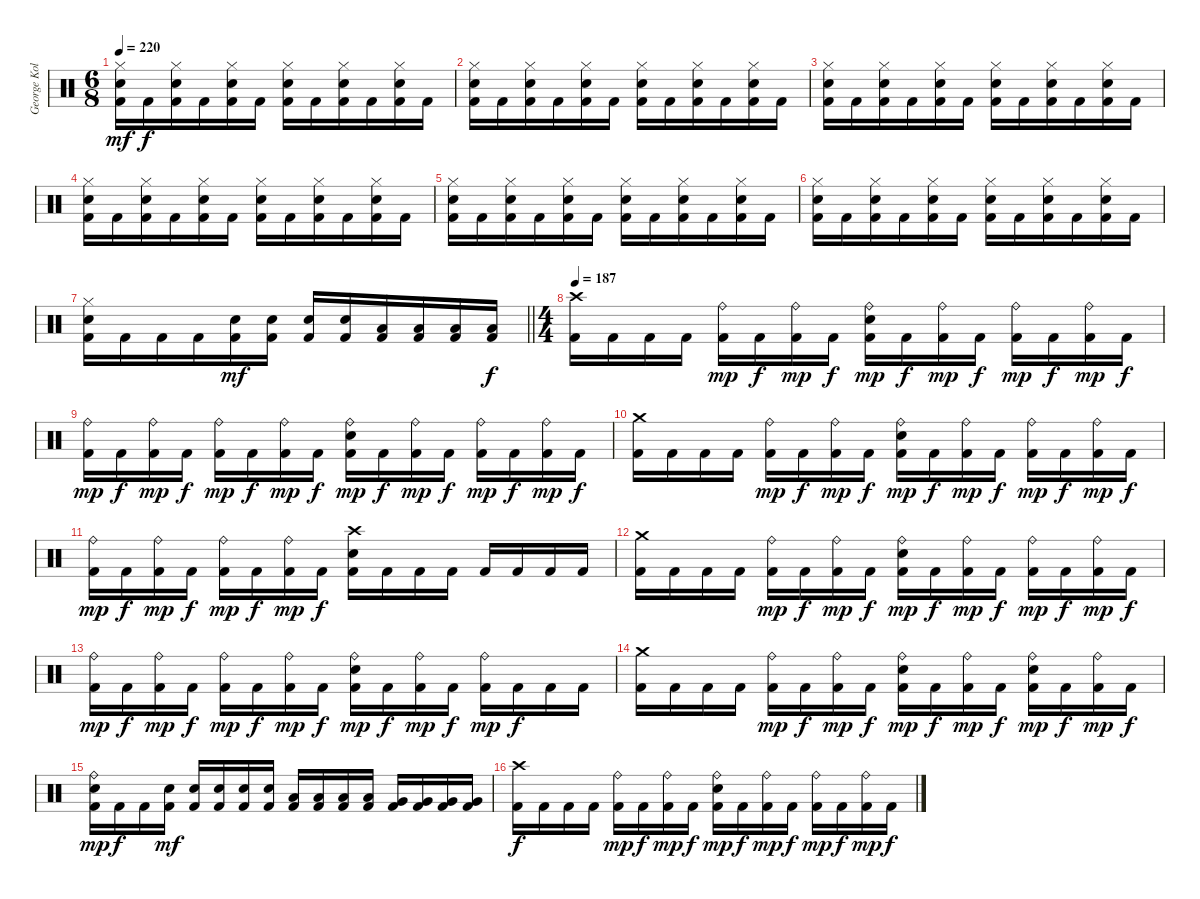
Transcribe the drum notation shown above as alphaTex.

\track ("George Kollias" "George Kol") {instrument percussion}
\staff {score}
\articulation defaults
\ts (6 8)
\tempo 220
\clef neutral
\ks c
("Hi-Hat (closed)" "Electric Snare (hit)" "Kick (hit) 2").16{dy mf} "Kick (hit) 2".16{dy f} ("Hi-Hat (closed)" "Electric Snare (hit)" "Kick (hit) 2").16 "Kick (hit) 2".16 ("Hi-Hat (closed)" "Electric Snare (hit)" "Kick (hit) 2").16 "Kick (hit) 2".16 ("Hi-Hat (closed)" "Electric Snare (hit)" "Kick (hit) 2").16 "Kick (hit) 2".16 ("Hi-Hat (closed)" "Electric Snare (hit)" "Kick (hit) 2").16 "Kick (hit) 2".16 ("Hi-Hat (closed)" "Electric Snare (hit)" "Kick (hit) 2").16 "Kick (hit) 2".16 |
("Hi-Hat (closed)" "Electric Snare (hit)" "Kick (hit) 2").16 "Kick (hit) 2".16 ("Hi-Hat (closed)" "Electric Snare (hit)" "Kick (hit) 2").16 "Kick (hit) 2".16 ("Hi-Hat (closed)" "Electric Snare (hit)" "Kick (hit) 2").16 "Kick (hit) 2".16 ("Hi-Hat (closed)" "Electric Snare (hit)" "Kick (hit) 2").16 "Kick (hit) 2".16 ("Hi-Hat (closed)" "Electric Snare (hit)" "Kick (hit) 2").16 "Kick (hit) 2".16 ("Hi-Hat (closed)" "Electric Snare (hit)" "Kick (hit) 2").16 "Kick (hit) 2".16 |
("Hi-Hat (closed)" "Electric Snare (hit)" "Kick (hit) 2").16 "Kick (hit) 2".16 ("Hi-Hat (closed)" "Electric Snare (hit)" "Kick (hit) 2").16 "Kick (hit) 2".16 ("Hi-Hat (closed)" "Electric Snare (hit)" "Kick (hit) 2").16 "Kick (hit) 2".16 ("Hi-Hat (closed)" "Electric Snare (hit)" "Kick (hit) 2").16 "Kick (hit) 2".16 ("Hi-Hat (closed)" "Electric Snare (hit)" "Kick (hit) 2").16 "Kick (hit) 2".16 ("Hi-Hat (closed)" "Electric Snare (hit)" "Kick (hit) 2").16 "Kick (hit) 2".16 |
("Hi-Hat (closed)" "Electric Snare (hit)" "Kick (hit) 2").16 "Kick (hit) 2".16 ("Hi-Hat (closed)" "Electric Snare (hit)" "Kick (hit) 2").16 "Kick (hit) 2".16 ("Hi-Hat (closed)" "Electric Snare (hit)" "Kick (hit) 2").16 "Kick (hit) 2".16 ("Hi-Hat (closed)" "Electric Snare (hit)" "Kick (hit) 2").16 "Kick (hit) 2".16 ("Hi-Hat (closed)" "Electric Snare (hit)" "Kick (hit) 2").16 "Kick (hit) 2".16 ("Hi-Hat (closed)" "Electric Snare (hit)" "Kick (hit) 2").16 "Kick (hit) 2".16 |
("Hi-Hat (closed)" "Electric Snare (hit)" "Kick (hit) 2").16 "Kick (hit) 2".16 ("Hi-Hat (closed)" "Electric Snare (hit)" "Kick (hit) 2").16 "Kick (hit) 2".16 ("Hi-Hat (closed)" "Electric Snare (hit)" "Kick (hit) 2").16 "Kick (hit) 2".16 ("Hi-Hat (closed)" "Electric Snare (hit)" "Kick (hit) 2").16 "Kick (hit) 2".16 ("Hi-Hat (closed)" "Electric Snare (hit)" "Kick (hit) 2").16 "Kick (hit) 2".16 ("Hi-Hat (closed)" "Electric Snare (hit)" "Kick (hit) 2").16 "Kick (hit) 2".16 |
("Hi-Hat (closed)" "Electric Snare (hit)" "Kick (hit) 2").16 "Kick (hit) 2".16 ("Hi-Hat (closed)" "Electric Snare (hit)" "Kick (hit) 2").16 "Kick (hit) 2".16 ("Hi-Hat (closed)" "Electric Snare (hit)" "Kick (hit) 2").16 "Kick (hit) 2".16 ("Hi-Hat (closed)" "Electric Snare (hit)" "Kick (hit) 2").16 "Kick (hit) 2".16 ("Hi-Hat (closed)" "Electric Snare (hit)" "Kick (hit) 2").16 "Kick (hit) 2".16 ("Hi-Hat (closed)" "Electric Snare (hit)" "Kick (hit) 2").16 "Kick (hit) 2".16 |
\barLineRight lightlight
("Hi-Hat (closed)" "Electric Snare (hit)" "Kick (hit) 2").16 "Kick (hit) 2".16 "Kick (hit) 2".16 "Kick (hit) 2".16 ("Electric Snare (hit)" "Kick (hit) 2").16{dy mf} ("Electric Snare (hit)" "Kick (hit) 2").16 ("Electric Snare (hit)" "Kick (hit) 2").16 ("Electric Snare (hit)" "Kick (hit) 2").16 ("Low Tom (hit)" "Kick (hit) 2").16 ("Low Tom (hit)" "Kick (hit) 2").16 ("Low Tom (hit)" "Kick (hit) 2").16 ("Low Tom (hit)" "Kick (hit) 2").16{dy f} |
\ts (4 4)
\section ("" "")
\tempo 187
("Crash high (hit)" "Kick (hit) 2").16 "Kick (hit) 2".16 "Kick (hit) 2".16 "Kick (hit) 2".16 ("Ride (bell)" "Kick (hit) 2").16{dy mp} "Kick (hit) 2".16{dy f} ("Ride (bell)" "Kick (hit) 2").16{dy mp} "Kick (hit) 2".16{dy f} ("Ride (bell)" "Electric Snare (hit)" "Kick (hit) 2").16{dy mp} "Kick (hit) 2".16{dy f} ("Ride (bell)" "Kick (hit) 2").16{dy mp} "Kick (hit) 2".16{dy f} ("Ride (bell)" "Kick (hit) 2").16{dy mp} "Kick (hit) 2".16{dy f} ("Ride (bell)" "Kick (hit) 2").16{dy mp} "Kick (hit) 2".16{dy f} |
("Ride (bell)" "Kick (hit) 2").16{dy mp} "Kick (hit) 2".16{dy f} ("Ride (bell)" "Kick (hit) 2").16{dy mp} "Kick (hit) 2".16{dy f} ("Ride (bell)" "Kick (hit) 2").16{dy mp} "Kick (hit) 2".16{dy f} ("Ride (bell)" "Kick (hit) 2").16{dy mp} "Kick (hit) 2".16{dy f} ("Ride (bell)" "Electric Snare (hit)" "Kick (hit) 2").16{dy mp} "Kick (hit) 2".16{dy f} ("Ride (bell)" "Kick (hit) 2").16{dy mp} "Kick (hit) 2".16{dy f} ("Ride (bell)" "Kick (hit) 2").16{dy mp} "Kick (hit) 2".16{dy f} ("Ride (bell)" "Kick (hit) 2").16{dy mp} "Kick (hit) 2".16{dy f} |
("Crash medium (hit)" "Kick (hit) 2").16 "Kick (hit) 2".16 "Kick (hit) 2".16 "Kick (hit) 2".16 ("Ride (bell)" "Kick (hit) 2").16{dy mp} "Kick (hit) 2".16{dy f} ("Ride (bell)" "Kick (hit) 2").16{dy mp} "Kick (hit) 2".16{dy f} ("Ride (bell)" "Electric Snare (hit)" "Kick (hit) 2").16{dy mp} "Kick (hit) 2".16{dy f} ("Ride (bell)" "Kick (hit) 2").16{dy mp} "Kick (hit) 2".16{dy f} ("Ride (bell)" "Kick (hit) 2").16{dy mp} "Kick (hit) 2".16{dy f} ("Ride (bell)" "Kick (hit) 2").16{dy mp} "Kick (hit) 2".16{dy f} |
("Ride (bell)" "Kick (hit) 2").16{dy mp} "Kick (hit) 2".16{dy f} ("Ride (bell)" "Kick (hit) 2").16{dy mp} "Kick (hit) 2".16{dy f} ("Ride (bell)" "Kick (hit) 2").16{dy mp} "Kick (hit) 2".16{dy f} ("Ride (bell)" "Kick (hit) 2").16{dy mp} "Kick (hit) 2".16{dy f} ("Crash high (hit)" "Electric Snare (hit)" "Kick (hit) 2").16 "Kick (hit) 2".16 "Kick (hit) 2".16 "Kick (hit) 2".16 "Kick (hit) 2".16 "Kick (hit) 2".16 "Kick (hit) 2".16 "Kick (hit) 2".16 |
("Crash medium (hit)" "Kick (hit) 2").16 "Kick (hit) 2".16 "Kick (hit) 2".16 "Kick (hit) 2".16 ("Ride (bell)" "Kick (hit) 2").16{dy mp} "Kick (hit) 2".16{dy f} ("Ride (bell)" "Kick (hit) 2").16{dy mp} "Kick (hit) 2".16{dy f} ("Ride (bell)" "Electric Snare (hit)" "Kick (hit) 2").16{dy mp} "Kick (hit) 2".16{dy f} ("Ride (bell)" "Kick (hit) 2").16{dy mp} "Kick (hit) 2".16{dy f} ("Ride (bell)" "Kick (hit) 2").16{dy mp} "Kick (hit) 2".16{dy f} ("Ride (bell)" "Kick (hit) 2").16{dy mp} "Kick (hit) 2".16{dy f} |
("Ride (bell)" "Kick (hit) 2").16{dy mp} "Kick (hit) 2".16{dy f} ("Ride (bell)" "Kick (hit) 2").16{dy mp} "Kick (hit) 2".16{dy f} ("Ride (bell)" "Kick (hit) 2").16{dy mp} "Kick (hit) 2".16{dy f} ("Ride (bell)" "Kick (hit) 2").16{dy mp} "Kick (hit) 2".16{dy f} ("Ride (bell)" "Electric Snare (hit)" "Kick (hit) 2").16{dy mp} "Kick (hit) 2".16{dy f} ("Ride (bell)" "Kick (hit) 2").16{dy mp} "Kick (hit) 2".16{dy f} ("Ride (bell)" "Kick (hit) 2").16{dy mp} "Kick (hit) 2".16{dy f} "Kick (hit) 2".16 "Kick (hit) 2".16 |
("Crash medium (hit)" "Kick (hit) 2").16 "Kick (hit) 2".16 "Kick (hit) 2".16 "Kick (hit) 2".16 ("Ride (bell)" "Kick (hit) 2").16{dy mp} "Kick (hit) 2".16{dy f} ("Ride (bell)" "Kick (hit) 2").16{dy mp} "Kick (hit) 2".16{dy f} ("Ride (bell)" "Electric Snare (hit)" "Kick (hit) 2").16{dy mp} "Kick (hit) 2".16{dy f} ("Ride (bell)" "Kick (hit) 2").16{dy mp} "Kick (hit) 2".16{dy f} ("Ride (bell)" "Electric Snare (hit)" "Kick (hit) 2").16{dy mp} "Kick (hit) 2".16{dy f} ("Ride (bell)" "Kick (hit) 2").16{dy mp} "Kick (hit) 2".16{dy f} |
("Ride (bell)" "Electric Snare (hit)" "Kick (hit) 2").16{dy mp} "Kick (hit) 2".16{dy f} "Kick (hit) 2".16 ("Electric Snare (hit)" "Kick (hit) 2").16{dy mf} ("Electric Snare (hit)" "Kick (hit) 2").16 ("Electric Snare (hit)" "Kick (hit) 2").16 ("Electric Snare (hit)" "Kick (hit) 2").16 ("Electric Snare (hit)" "Kick (hit) 2").16 ("Low Tom (hit)" "Kick (hit) 2").16 ("Low Tom (hit)" "Kick (hit) 2").16 ("Low Tom (hit)" "Kick (hit) 2").16 ("Low Tom (hit)" "Kick (hit) 2").16 ("Very Low Tom (hit)" "Kick (hit) 2").16 ("Very Low Tom (hit)" "Kick (hit) 2").16 ("Very Low Tom (hit)" "Kick (hit) 2").16 ("Very Low Tom (hit)" "Kick (hit) 2").16 |
("Crash high (hit)" "Kick (hit) 2").16{dy f} "Kick (hit) 2".16 "Kick (hit) 2".16 "Kick (hit) 2".16 ("Ride (bell)" "Kick (hit) 2").16{dy mp} "Kick (hit) 2".16{dy f} ("Ride (bell)" "Kick (hit) 2").16{dy mp} "Kick (hit) 2".16{dy f} ("Ride (bell)" "Electric Snare (hit)" "Kick (hit) 2").16{dy mp} "Kick (hit) 2".16{dy f} ("Ride (bell)" "Kick (hit) 2").16{dy mp} "Kick (hit) 2".16{dy f} ("Ride (bell)" "Kick (hit) 2").16{dy mp} "Kick (hit) 2".16{dy f} ("Ride (bell)" "Kick (hit) 2").16{dy mp} "Kick (hit) 2".16{dy f}
